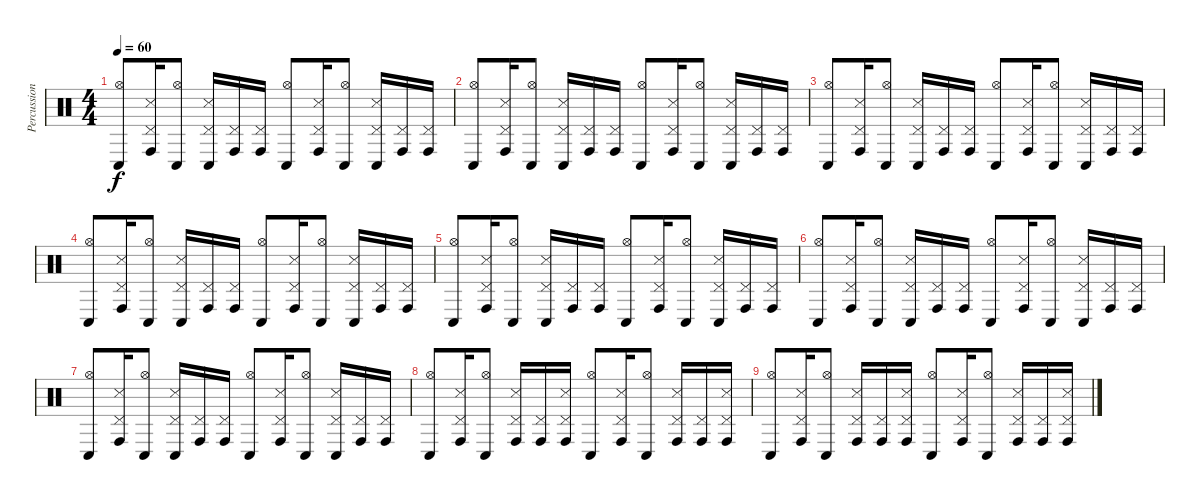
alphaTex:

\track ("Percussion" "Percussion") {instrument percussion}
\staff {score}
\articulation defaults
\ts (4 4)
\tempo 60
\clef neutral
\ks c
("Hi-Hat (open)" "Conga low (hit)").8{dy f} ("Pedal Hi-Hat (hit)" "Metronome (hit)" "Conga high (hit)").16 ("Hi-Hat (open)" "Conga low (hit)").8 ("Pedal Hi-Hat (hit)" "Metronome (hit)" "Conga low (hit)").16 ("Pedal Hi-Hat (hit)" "Conga high (hit)").16 ("Pedal Hi-Hat (hit)" "Conga high (hit)").16 ("Hi-Hat (open)" "Conga low (hit)").8 ("Pedal Hi-Hat (hit)" "Metronome (hit)" "Conga high (hit)").16 ("Hi-Hat (open)" "Conga low (hit)").8 ("Pedal Hi-Hat (hit)" "Metronome (hit)" "Conga low (hit)").16 ("Pedal Hi-Hat (hit)" "Conga high (hit)").16 ("Pedal Hi-Hat (hit)" "Conga high (hit)").16 |
("Hi-Hat (open)" "Conga low (hit)").8 ("Pedal Hi-Hat (hit)" "Metronome (hit)" "Conga high (hit)").16 ("Hi-Hat (open)" "Conga low (hit)").8 ("Pedal Hi-Hat (hit)" "Metronome (hit)" "Conga low (hit)").16 ("Pedal Hi-Hat (hit)" "Conga high (hit)").16 ("Pedal Hi-Hat (hit)" "Conga high (hit)").16 ("Hi-Hat (open)" "Conga low (hit)").8 ("Pedal Hi-Hat (hit)" "Metronome (hit)" "Conga high (hit)").16 ("Hi-Hat (open)" "Conga low (hit)").8 ("Pedal Hi-Hat (hit)" "Metronome (hit)" "Conga low (hit)").16 ("Pedal Hi-Hat (hit)" "Conga high (hit)").16 ("Pedal Hi-Hat (hit)" "Conga high (hit)").16 |
("Hi-Hat (open)" "Conga low (hit)").8 ("Pedal Hi-Hat (hit)" "Metronome (hit)" "Conga high (hit)").16 ("Hi-Hat (open)" "Conga low (hit)").8 ("Pedal Hi-Hat (hit)" "Metronome (hit)" "Conga low (hit)").16 ("Pedal Hi-Hat (hit)" "Conga high (hit)").16 ("Pedal Hi-Hat (hit)" "Conga high (hit)").16 ("Hi-Hat (open)" "Conga low (hit)").8 ("Pedal Hi-Hat (hit)" "Metronome (hit)" "Conga high (hit)").16 ("Hi-Hat (open)" "Conga low (hit)").8 ("Pedal Hi-Hat (hit)" "Metronome (hit)" "Conga low (hit)").16 ("Pedal Hi-Hat (hit)" "Conga high (hit)").16 ("Pedal Hi-Hat (hit)" "Conga high (hit)").16 |
("Hi-Hat (open)" "Conga low (hit)").8 ("Pedal Hi-Hat (hit)" "Metronome (hit)" "Conga high (hit)").16 ("Hi-Hat (open)" "Conga low (hit)").8 ("Pedal Hi-Hat (hit)" "Metronome (hit)" "Conga low (hit)").16 ("Pedal Hi-Hat (hit)" "Conga high (hit)").16 ("Pedal Hi-Hat (hit)" "Conga high (hit)").16 ("Hi-Hat (open)" "Conga low (hit)").8 ("Pedal Hi-Hat (hit)" "Metronome (hit)" "Conga high (hit)").16 ("Hi-Hat (open)" "Conga low (hit)").8 ("Pedal Hi-Hat (hit)" "Metronome (hit)" "Conga low (hit)").16 ("Pedal Hi-Hat (hit)" "Conga high (hit)").16 ("Pedal Hi-Hat (hit)" "Conga high (hit)").16 |
("Hi-Hat (open)" "Conga low (hit)").8 ("Pedal Hi-Hat (hit)" "Metronome (hit)" "Conga high (hit)").16 ("Hi-Hat (open)" "Conga low (hit)").8 ("Pedal Hi-Hat (hit)" "Metronome (hit)" "Conga low (hit)").16 ("Pedal Hi-Hat (hit)" "Conga high (hit)").16 ("Pedal Hi-Hat (hit)" "Conga high (hit)").16 ("Hi-Hat (open)" "Conga low (hit)").8 ("Pedal Hi-Hat (hit)" "Metronome (hit)" "Conga high (hit)").16 ("Hi-Hat (open)" "Conga low (hit)").8 ("Pedal Hi-Hat (hit)" "Metronome (hit)" "Conga low (hit)").16 ("Pedal Hi-Hat (hit)" "Conga high (hit)").16 ("Pedal Hi-Hat (hit)" "Conga high (hit)").16 |
("Hi-Hat (open)" "Conga low (hit)").8 ("Pedal Hi-Hat (hit)" "Metronome (hit)" "Conga high (hit)").16 ("Hi-Hat (open)" "Conga low (hit)").8 ("Pedal Hi-Hat (hit)" "Metronome (hit)" "Conga low (hit)").16 ("Pedal Hi-Hat (hit)" "Conga high (hit)").16 ("Pedal Hi-Hat (hit)" "Conga high (hit)").16 ("Hi-Hat (open)" "Conga low (hit)").8 ("Pedal Hi-Hat (hit)" "Metronome (hit)" "Conga high (hit)").16 ("Hi-Hat (open)" "Conga low (hit)").8 ("Pedal Hi-Hat (hit)" "Metronome (hit)" "Conga low (hit)").16 ("Pedal Hi-Hat (hit)" "Conga high (hit)").16 ("Pedal Hi-Hat (hit)" "Conga high (hit)").16 |
("Hi-Hat (open)" "Conga low (hit)").8 ("Pedal Hi-Hat (hit)" "Metronome (hit)" "Conga high (hit)").16 ("Hi-Hat (open)" "Conga low (hit)").8 ("Pedal Hi-Hat (hit)" "Metronome (hit)" "Conga low (hit)").16 ("Pedal Hi-Hat (hit)" "Conga high (hit)").16 ("Pedal Hi-Hat (hit)" "Conga high (hit)").16 ("Hi-Hat (open)" "Conga low (hit)").8 ("Pedal Hi-Hat (hit)" "Metronome (hit)" "Conga high (hit)").16 ("Hi-Hat (open)" "Conga low (hit)").8 ("Pedal Hi-Hat (hit)" "Metronome (hit)" "Conga low (hit)").16 ("Pedal Hi-Hat (hit)" "Conga high (hit)").16 ("Pedal Hi-Hat (hit)" "Conga high (hit)").16 |
("Hi-Hat (open)" "Conga low (hit)").8 ("Pedal Hi-Hat (hit)" "Metronome (hit)" "Conga high (hit)").16 ("Hi-Hat (open)" "Conga low (hit)").8 ("Pedal Hi-Hat (hit)" "Metronome (hit)" "Conga high (hit)").16 ("Pedal Hi-Hat (hit)" "Conga high (hit)").16 ("Pedal Hi-Hat (hit)" "Metronome (hit)" "Conga high (hit)").16 ("Hi-Hat (open)" "Conga low (hit)").8 ("Pedal Hi-Hat (hit)" "Metronome (hit)" "Conga high (hit)").16 ("Hi-Hat (open)" "Conga low (hit)").8 ("Pedal Hi-Hat (hit)" "Metronome (hit)" "Conga high (hit)").16 ("Pedal Hi-Hat (hit)" "Conga high (hit)").16 ("Pedal Hi-Hat (hit)" "Metronome (hit)" "Conga high (hit)").16 |
("Hi-Hat (open)" "Conga low (hit)").8{volume 7} ("Pedal Hi-Hat (hit)" "Metronome (hit)" "Conga high (hit)").16 ("Hi-Hat (open)" "Conga low (hit)").8{volume 5} ("Pedal Hi-Hat (hit)" "Metronome (hit)" "Conga high (hit)").16 ("Pedal Hi-Hat (hit)" "Conga high (hit)").16 ("Pedal Hi-Hat (hit)" "Metronome (hit)" "Conga high (hit)").16 ("Hi-Hat (open)" "Conga low (hit)").8{volume 3} ("Pedal Hi-Hat (hit)" "Metronome (hit)" "Conga high (hit)").16 ("Hi-Hat (open)" "Conga low (hit)").8{volume 2} ("Pedal Hi-Hat (hit)" "Metronome (hit)" "Conga high (hit)").16 ("Pedal Hi-Hat (hit)" "Conga high (hit)").16{volume 1} ("Pedal Hi-Hat (hit)" "Metronome (hit)" "Conga high (hit)").16
